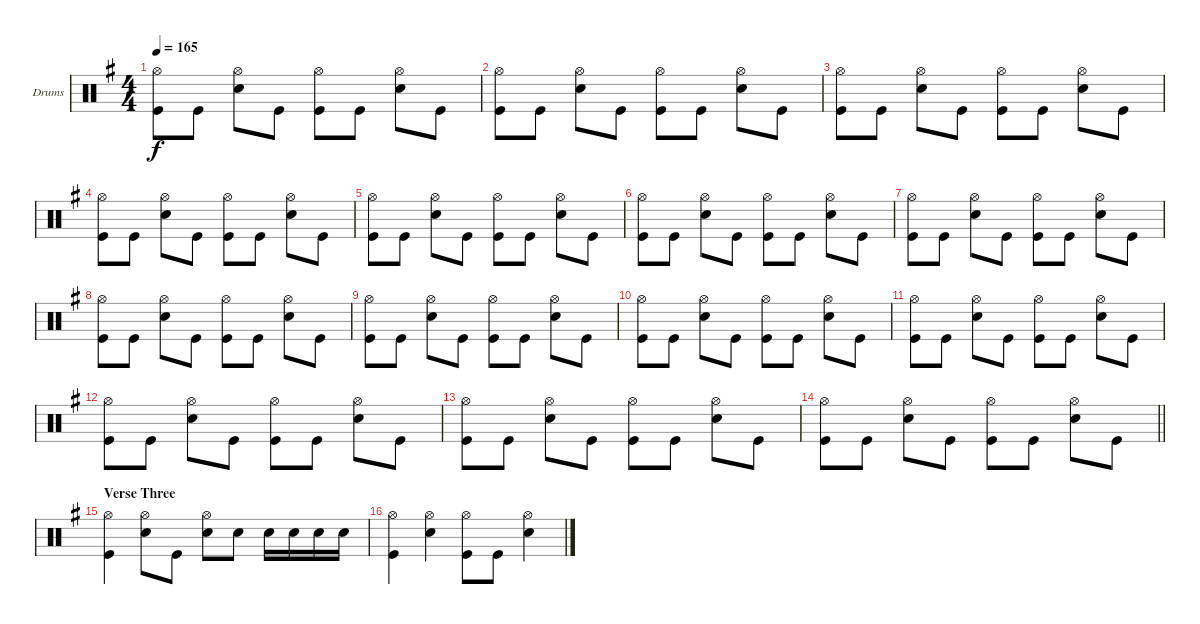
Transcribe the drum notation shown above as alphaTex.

\bracketExtendMode groupsimilarinstruments
\firstSystemTrackNameOrientation horizontal
\otherSystemsTrackNameOrientation horizontal
\track ("Drumkit" "Drums") {instrument percussion}
\staff {score}
\articulation defaults
\ts (4 4)
\tempo 165
\clef neutral
\ks eminor
("Hi-Hat (open)" "Kick (hit)").8{dy f} "Kick (hit)".8 ("Hi-Hat (open)" "Snare (hit) 2").8 "Kick (hit)".8 ("Hi-Hat (open)" "Kick (hit)").8 "Kick (hit)".8 ("Hi-Hat (open)" "Snare (hit) 2").8 "Kick (hit)".8 |
("Hi-Hat (open)" "Kick (hit)").8 "Kick (hit)".8 ("Hi-Hat (open)" "Snare (hit) 2").8 "Kick (hit)".8 ("Hi-Hat (open)" "Kick (hit)").8 "Kick (hit)".8 ("Hi-Hat (open)" "Snare (hit) 2").8 "Kick (hit)".8 |
("Hi-Hat (open)" "Kick (hit)").8 "Kick (hit)".8 ("Hi-Hat (open)" "Snare (hit) 2").8 "Kick (hit)".8 ("Hi-Hat (open)" "Kick (hit)").8 "Kick (hit)".8 ("Hi-Hat (open)" "Snare (hit) 2").8 "Kick (hit)".8 |
("Hi-Hat (open)" "Kick (hit)").8 "Kick (hit)".8 ("Hi-Hat (open)" "Snare (hit) 2").8 "Kick (hit)".8 ("Hi-Hat (open)" "Kick (hit)").8 "Kick (hit)".8 ("Hi-Hat (open)" "Snare (hit) 2").8 "Kick (hit)".8 |
("Hi-Hat (open)" "Kick (hit)").8 "Kick (hit)".8 ("Hi-Hat (open)" "Snare (hit) 2").8 "Kick (hit)".8 ("Hi-Hat (open)" "Kick (hit)").8 "Kick (hit)".8 ("Hi-Hat (open)" "Snare (hit) 2").8 "Kick (hit)".8 |
("Hi-Hat (open)" "Kick (hit)").8 "Kick (hit)".8 ("Hi-Hat (open)" "Snare (hit) 2").8 "Kick (hit)".8 ("Hi-Hat (open)" "Kick (hit)").8 "Kick (hit)".8 ("Hi-Hat (open)" "Snare (hit) 2").8 "Kick (hit)".8 |
("Hi-Hat (open)" "Kick (hit)").8 "Kick (hit)".8 ("Hi-Hat (open)" "Snare (hit) 2").8 "Kick (hit)".8 ("Hi-Hat (open)" "Kick (hit)").8 "Kick (hit)".8 ("Hi-Hat (open)" "Snare (hit) 2").8 "Kick (hit)".8 |
("Hi-Hat (open)" "Kick (hit)").8 "Kick (hit)".8 ("Hi-Hat (open)" "Snare (hit) 2").8 "Kick (hit)".8 ("Hi-Hat (open)" "Kick (hit)").8 "Kick (hit)".8 ("Hi-Hat (open)" "Snare (hit) 2").8 "Kick (hit)".8 |
("Hi-Hat (open)" "Kick (hit)").8 "Kick (hit)".8 ("Hi-Hat (open)" "Snare (hit) 2").8 "Kick (hit)".8 ("Hi-Hat (open)" "Kick (hit)").8 "Kick (hit)".8 ("Hi-Hat (open)" "Snare (hit) 2").8 "Kick (hit)".8 |
("Hi-Hat (open)" "Kick (hit)").8 "Kick (hit)".8 ("Hi-Hat (open)" "Snare (hit) 2").8 "Kick (hit)".8 ("Hi-Hat (open)" "Kick (hit)").8 "Kick (hit)".8 ("Hi-Hat (open)" "Snare (hit) 2").8 "Kick (hit)".8 |
("Hi-Hat (open)" "Kick (hit)").8 "Kick (hit)".8 ("Hi-Hat (open)" "Snare (hit) 2").8 "Kick (hit)".8 ("Hi-Hat (open)" "Kick (hit)").8 "Kick (hit)".8 ("Hi-Hat (open)" "Snare (hit) 2").8 "Kick (hit)".8 |
("Hi-Hat (open)" "Kick (hit)").8 "Kick (hit)".8 ("Hi-Hat (open)" "Snare (hit) 2").8 "Kick (hit)".8 ("Hi-Hat (open)" "Kick (hit)").8 "Kick (hit)".8 ("Hi-Hat (open)" "Snare (hit) 2").8 "Kick (hit)".8 |
("Hi-Hat (open)" "Kick (hit)").8 "Kick (hit)".8 ("Hi-Hat (open)" "Snare (hit) 2").8 "Kick (hit)".8 ("Hi-Hat (open)" "Kick (hit)").8 "Kick (hit)".8 ("Hi-Hat (open)" "Snare (hit) 2").8 "Kick (hit)".8 |
\barLineRight lightlight
("Hi-Hat (open)" "Kick (hit)").8 "Kick (hit)".8 ("Hi-Hat (open)" "Snare (hit) 2").8 "Kick (hit)".8 ("Hi-Hat (open)" "Kick (hit)").8 "Kick (hit)".8 ("Hi-Hat (open)" "Snare (hit) 2").8 "Kick (hit)".8 |
\section ("" "Verse Three")
("Hi-Hat (open)" "Kick (hit)").4 ("Hi-Hat (open)" "Snare (hit) 2").8 "Kick (hit)".8 ("Hi-Hat (open)" "Snare (hit) 2").8 "Snare (hit) 2".8 "Snare (hit) 2".16 "Snare (hit) 2".16 "Snare (hit) 2".16 "Snare (hit) 2".16 |
("Hi-Hat (open)" "Kick (hit)").4 ("Hi-Hat (open)" "Snare (hit) 2").4 ("Hi-Hat (open)" "Kick (hit)").8 "Kick (hit)".8 ("Hi-Hat (open)" "Snare (hit) 2").4
